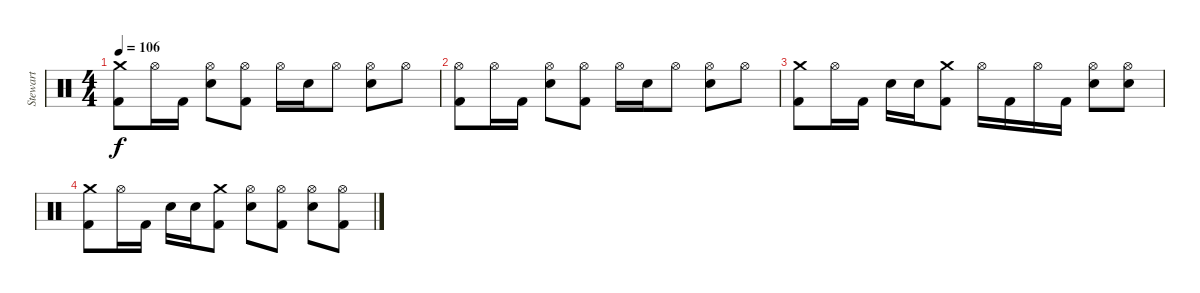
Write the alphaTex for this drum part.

\track ("Stewart" "Stewart") {instrument percussion}
\staff {score}
\articulation defaults
\ts (4 4)
\tempo 106
\clef neutral
\ks c
("Crash medium (hit)" "Kick (hit) 2").8{dy f} "Hi-Hat (open)".16 "Kick (hit) 2".16 ("Hi-Hat (open)" "Electric Snare (hit)").8 ("Hi-Hat (open)" "Kick (hit) 2").8 "Hi-Hat (open)".16 "Electric Snare (hit)".16 "Hi-Hat (open)".8 ("Hi-Hat (open)" "Electric Snare (hit)").8 "Hi-Hat (open)".8 |
("Hi-Hat (open)" "Kick (hit) 2").8 "Hi-Hat (open)".16 "Kick (hit) 2".16 ("Hi-Hat (open)" "Electric Snare (hit)").8 ("Hi-Hat (open)" "Kick (hit) 2").8 "Hi-Hat (open)".16 "Electric Snare (hit)".16 "Hi-Hat (open)".8 ("Hi-Hat (open)" "Electric Snare (hit)").8 "Hi-Hat (open)".8 |
("Crash medium (hit)" "Kick (hit) 2").8 "Hi-Hat (open)".16 "Kick (hit) 2".16 "Electric Snare (hit)".16 "Electric Snare (hit)".16 ("Crash medium (hit)" "Kick (hit) 2").8 "Hi-Hat (open)".16 "Kick (hit) 2".16 "Hi-Hat (open)".16 "Kick (hit) 2".16 ("Hi-Hat (open)" "Electric Snare (hit)").8 ("Hi-Hat (open)" "Electric Snare (hit)").8 |
("Crash medium (hit)" "Kick (hit) 2").8 "Hi-Hat (open)".16 "Kick (hit) 2".16 "Electric Snare (hit)".16 "Electric Snare (hit)".16 ("Crash medium (hit)" "Kick (hit) 2").8 ("Hi-Hat (open)" "Electric Snare (hit)").8 ("Hi-Hat (open)" "Kick (hit) 2").8 ("Hi-Hat (open)" "Electric Snare (hit)").8 ("Hi-Hat (open)" "Kick (hit) 2").8
